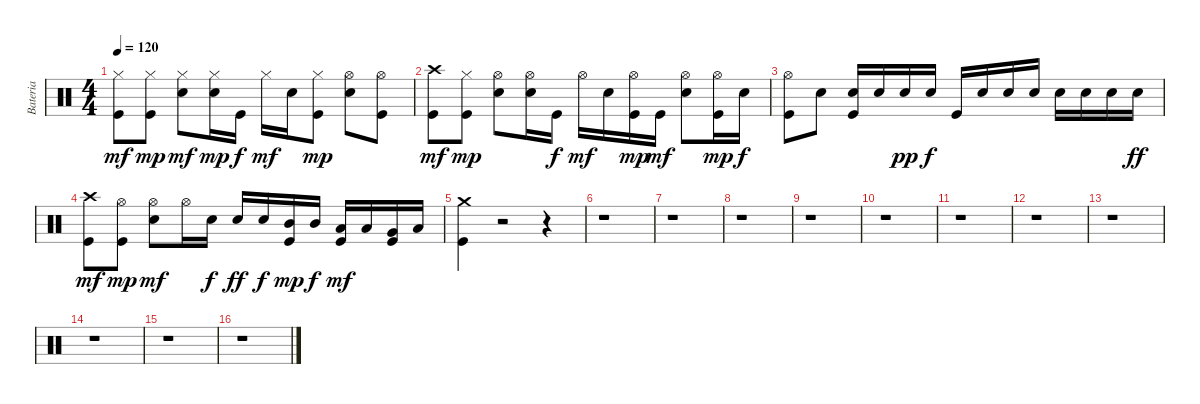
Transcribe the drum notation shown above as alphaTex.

\track ("Bateria" "Bateria") {instrument percussion}
\staff {score}
\articulation defaults
\ts (4 4)
\tempo 120
\clef neutral
\ks c
("Kick (hit)" "Hi-Hat (closed)").8{dy mf} ("Kick (hit)" "Hi-Hat (closed)").8{dy mp} ("Snare (hit) 2" "Hi-Hat (closed)").8{dy mf} ("Snare (hit) 2" "Hi-Hat (closed)").16{dy mp} "Kick (hit)".16{dy f} "Hi-Hat (closed)".16{dy mf} "Snare (hit) 2".16 ("Kick (hit)" "Hi-Hat (closed)").8{dy mp} ("Snare (hit) 2" "Hi-Hat (open)").8 ("Kick (hit)" "Hi-Hat (open)").8 |
("Kick (hit)" "Crash high (hit)").8{dy mf} ("Kick (hit)" "Hi-Hat (closed)").8{dy mp} ("Snare (hit) 2" "Hi-Hat (open)").8 ("Snare (hit) 2" "Hi-Hat (open)").16 "Kick (hit)".16{dy f} "Hi-Hat (open)".16{dy mf} "Snare (hit) 2".16 ("Kick (hit)" "Hi-Hat (open)").16{dy mp} "Kick (hit)".16{dy mf} ("Snare (hit) 2" "Hi-Hat (open)").8 ("Kick (hit)" "Hi-Hat (open)").16{dy mp} "Snare (hit) 2".16{dy f} |
("Kick (hit)" "Hi-Hat (open)").8 "Snare (hit) 2".8 ("Kick (hit)" "Snare (hit) 2").16 "Snare (hit) 2".16 "Snare (hit) 2".16{dy pp} "Snare (hit) 2".16{dy f} "Kick (hit)".16 "Snare (hit) 2".16 "Snare (hit) 2".16 "Snare (hit) 2".16 "Snare (hit) 2".16 "Snare (hit) 2".16 "Snare (hit) 2".16 "Snare (hit) 2".16{dy ff} |
("Kick (hit)" "Crash high (hit)").8{dy mf} ("Kick (hit)" "Hi-Hat (open)").8{dy mp} ("Snare (hit) 2" "Hi-Hat (open)").8{dy mf} "Hi-Hat (open)".16 "Snare (hit) 2".16{dy f} "Snare (hit) 2".16{dy ff} "Snare (hit) 2".16{dy f} ("Kick (hit)" "Mid Tom (hit)").16{dy mp} "Mid Tom (hit)".16{dy f} ("Kick (hit)" "Low Tom (hit)").16{dy mf} "Low Tom (hit)".16 ("Kick (hit)" "Very Low Tom (hit)").16 "Low Floor Tom (hit)".16 |
("Kick (hit)" "Crash medium (hit)").4 r.2 r.4 |
r.1 |
r.1 |
r.1 |
r.1 |
r.1 |
r.1 |
r.1 |
r.1 |
r.1 |
r.1 |
r.1
